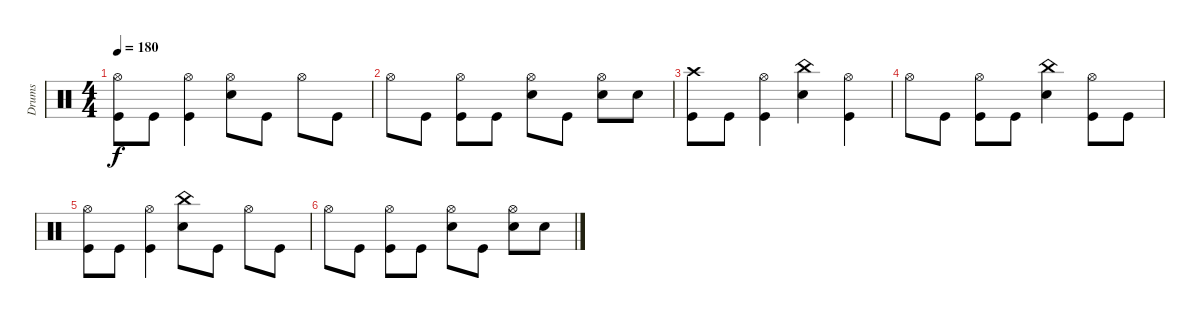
\track ("Drums" "Drums") {instrument percussion}
\staff {score}
\articulation defaults
\ts (4 4)
\tempo 180
\clef neutral
\ks c
("Hi-Hat (open)" "Kick (hit)").8{dy f} "Kick (hit)".8 ("Hi-Hat (open)" "Kick (hit)").4 ("Hi-Hat (open)" "Snare (hit) 2").8 "Kick (hit)".8 "Hi-Hat (open)".8 "Kick (hit)".8 |
"Hi-Hat (open)".8 "Kick (hit)".8 ("Hi-Hat (open)" "Kick (hit)").8 "Kick (hit)".8 ("Hi-Hat (open)" "Snare (hit) 2").8 "Kick (hit)".8 ("Hi-Hat (open)" "Snare (hit) 2").8 "Snare (hit) 2".8 |
("Crash high (hit)" "Kick (hit)").8 "Kick (hit)".8 ("Kick (hit)" "Hi-Hat (open)").4 ("China (hit)" "Snare (hit) 2").4 ("Hi-Hat (open)" "Kick (hit)").4 |
"Hi-Hat (open)".8 "Kick (hit)".8 ("Hi-Hat (open)" "Kick (hit)").8 "Kick (hit)".8 ("China (hit)" "Snare (hit) 2").4 ("Hi-Hat (open)" "Kick (hit)").8 "Kick (hit)".8 |
("Hi-Hat (open)" "Kick (hit)").8 "Kick (hit)".8 ("Hi-Hat (open)" "Kick (hit)").4 ("China (hit)" "Snare (hit) 2").8 "Kick (hit)".8 "Hi-Hat (open)".8 "Kick (hit)".8 |
"Hi-Hat (open)".8 "Kick (hit)".8 ("Hi-Hat (open)" "Kick (hit)").8 "Kick (hit)".8 ("Hi-Hat (open)" "Snare (hit) 2").8 "Kick (hit)".8 ("Hi-Hat (open)" "Snare (hit) 2").8 "Snare (hit) 2".8
